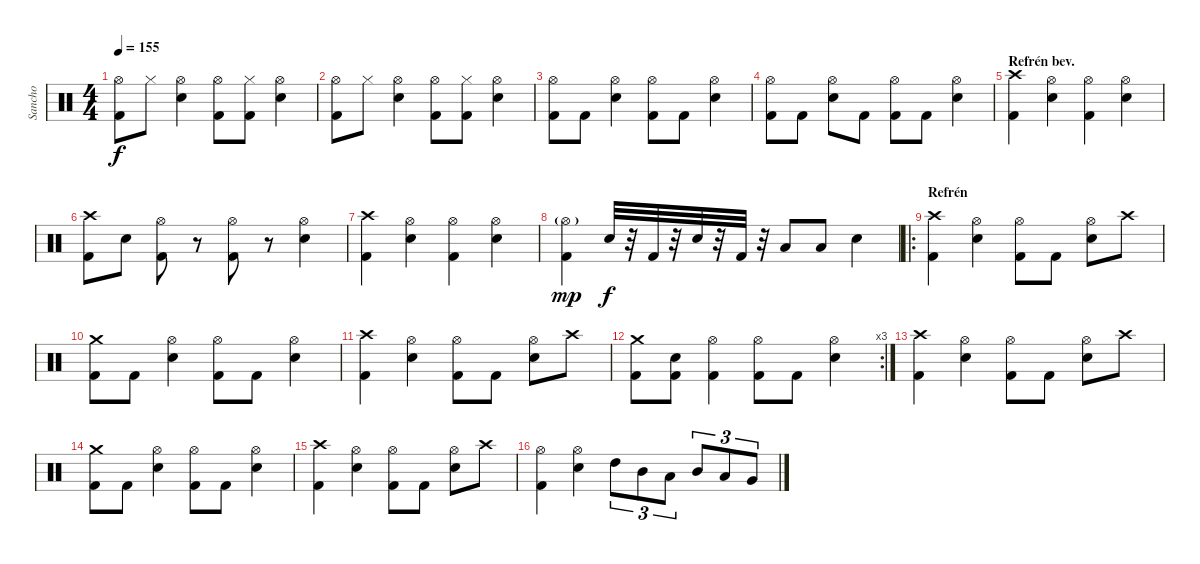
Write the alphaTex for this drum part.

\track ("Sancho" "Sancho") {instrument percussion}
\staff {score}
\articulation defaults
\ts (4 4)
\tempo 155
\clef neutral
\ks c
("Hi-Hat (open)" "Kick (hit) 2").8{dy f} "Hi-Hat (closed)".8 ("Hi-Hat (open)" "Electric Snare (hit)").4 ("Hi-Hat (open)" "Kick (hit) 2").8 ("Hi-Hat (closed)" "Kick (hit) 2").8 ("Hi-Hat (open)" "Electric Snare (hit)").4 |
("Hi-Hat (open)" "Kick (hit) 2").8 "Hi-Hat (closed)".8 ("Hi-Hat (open)" "Electric Snare (hit)").4 ("Hi-Hat (open)" "Kick (hit) 2").8 ("Hi-Hat (closed)" "Kick (hit) 2").8 ("Hi-Hat (open)" "Electric Snare (hit)").4 |
("Hi-Hat (open)" "Kick (hit) 2").8 "Kick (hit) 2".8 ("Hi-Hat (open)" "Electric Snare (hit)").4 ("Hi-Hat (open)" "Kick (hit) 2").8 "Kick (hit) 2".8 ("Hi-Hat (open)" "Electric Snare (hit)").4 |
("Hi-Hat (open)" "Kick (hit) 2").8 "Kick (hit) 2".8 ("Hi-Hat (open)" "Electric Snare (hit)").8 "Kick (hit) 2".8 ("Hi-Hat (open)" "Kick (hit) 2").8 "Kick (hit) 2".8 ("Hi-Hat (open)" "Electric Snare (hit)").4 |
\section ("" "Refrén bev.")
("Crash high (hit)" "Kick (hit) 2").4 ("Hi-Hat (open)" "Electric Snare (hit)").4 ("Hi-Hat (open)" "Kick (hit) 2").4 ("Hi-Hat (open)" "Electric Snare (hit)").4 |
("Crash high (hit)" "Kick (hit) 2").8 "Electric Snare (hit)".8 ("Hi-Hat (open)" "Kick (hit) 2").8 r.8 ("Hi-Hat (open)" "Kick (hit) 2").8 r.8 ("Hi-Hat (open)" "Electric Snare (hit)").4 |
("Crash high (hit)" "Kick (hit) 2").4 ("Hi-Hat (open)" "Electric Snare (hit)").4 ("Hi-Hat (open)" "Kick (hit) 2").4 ("Hi-Hat (open)" "Electric Snare (hit)").4 |
("Hi-Hat (open)"{g} "Kick (hit) 2").4{dy mp} "Electric Snare (hit)".32{dy f} r.32 "Kick (hit) 2".32 r.32 "Electric Snare (hit)".32 r.32 "Kick (hit) 2".32 r.32 "Low Tom (hit)".8 "Low Tom (hit)".8 "Electric Snare (hit)".4 |
\ro
\section ("" "Refrén")
("Crash high (hit)" "Kick (hit) 2").4 ("Hi-Hat (open)" "Electric Snare (hit)").4 ("Hi-Hat (open)" "Kick (hit) 2").8 "Kick (hit) 2".8 ("Hi-Hat (open)" "Electric Snare (hit)").8 "Crash high (hit)".8 |
("Crash medium (hit)" "Kick (hit) 2").8 "Kick (hit) 2".8 ("Hi-Hat (open)" "Electric Snare (hit)").4 ("Hi-Hat (open)" "Kick (hit) 2").8 "Kick (hit) 2".8 ("Hi-Hat (open)" "Electric Snare (hit)").4 |
("Crash high (hit)" "Kick (hit) 2").4 ("Hi-Hat (open)" "Electric Snare (hit)").4 ("Hi-Hat (open)" "Kick (hit) 2").8 "Kick (hit) 2".8 ("Hi-Hat (open)" "Electric Snare (hit)").8 "Crash high (hit)".8 |
\rc 3
("Crash medium (hit)" "Kick (hit) 2").8 ("Electric Snare (hit)" "Kick (hit) 2").8 ("Hi-Hat (open)" "Kick (hit) 2").4 ("Hi-Hat (open)" "Kick (hit) 2").8 "Kick (hit) 2".8 ("Hi-Hat (open)" "Electric Snare (hit)").4 |
("Crash high (hit)" "Kick (hit) 2").4 ("Hi-Hat (open)" "Electric Snare (hit)").4 ("Hi-Hat (open)" "Kick (hit) 2").8 "Kick (hit) 2".8 ("Hi-Hat (open)" "Electric Snare (hit)").8 "Crash high (hit)".8 |
("Crash medium (hit)" "Kick (hit) 2").8 "Kick (hit) 2".8 ("Hi-Hat (open)" "Electric Snare (hit)").4 ("Hi-Hat (open)" "Kick (hit) 2").8 "Kick (hit) 2".8 ("Hi-Hat (open)" "Electric Snare (hit)").4 |
("Crash high (hit)" "Kick (hit) 2").4 ("Hi-Hat (open)" "Electric Snare (hit)").4 ("Hi-Hat (open)" "Kick (hit) 2").8 "Kick (hit) 2".8 ("Hi-Hat (open)" "Electric Snare (hit)").8 "Crash high (hit)".8 |
("Hi-Hat (open)" "Kick (hit) 2").4 ("Hi-Hat (open)" "Electric Snare (hit)").4 "High Tom (hit)".8{tu (3 2)} "Mid Tom (hit)".8{tu (3 2)} "Low Tom (hit)".8{tu (3 2)} "Mid Tom (hit)".8{tu (3 2)} "Low Tom (hit)".8{tu (3 2)} "Very Low Tom (hit)".8{tu (3 2)}
